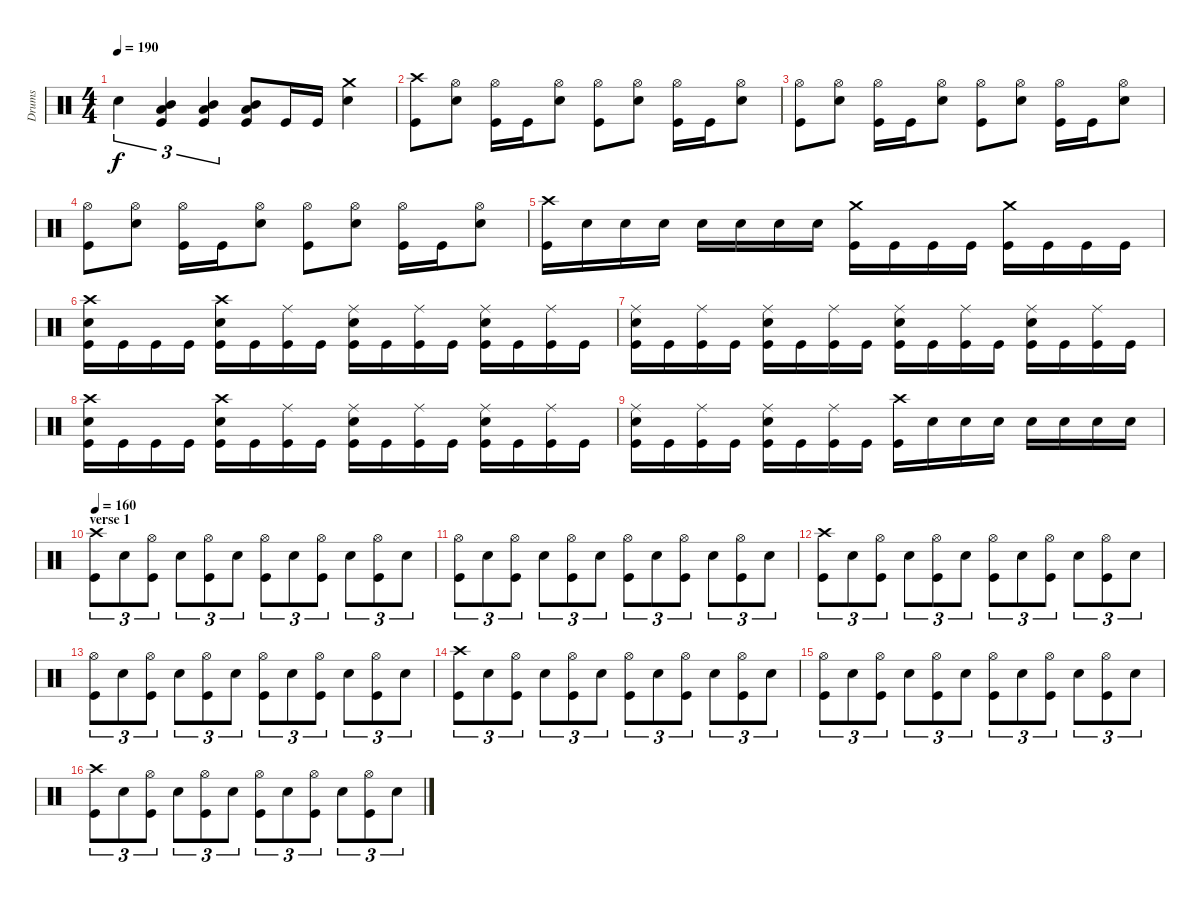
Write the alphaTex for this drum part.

\track ("Drums" "Drums") {instrument percussion}
\staff {score}
\articulation defaults
\ts (4 4)
\tempo 190
\clef neutral
\ks c "Electric Snare (hit)".4{tu (3 2) dy f}
("Mid Tom (hit)" "Low Tom (hit)" "Kick (hit)").4{tu (3 2)} ("Mid Tom (hit)" "Low Tom (hit)" "Kick (hit)").4{tu (3 2)} ("Mid Tom (hit)" "Low Tom (hit)" "Kick (hit)").8 "Kick (hit)".16 "Kick (hit)".16 ("Crash medium (hit)" "Electric Snare (hit)").4 |
("Crash high (hit)" "Kick (hit)").8 ("Hi-Hat (open)" "Electric Snare (hit)").8 ("Hi-Hat (open)" "Kick (hit)").16 "Kick (hit)".16 ("Hi-Hat (open)" "Electric Snare (hit)").8 ("Hi-Hat (open)" "Kick (hit)").8 ("Hi-Hat (open)" "Electric Snare (hit)").8 ("Hi-Hat (open)" "Kick (hit)").16 "Kick (hit)".16 ("Hi-Hat (open)" "Electric Snare (hit)").8 |
("Hi-Hat (open)" "Kick (hit)").8 ("Hi-Hat (open)" "Electric Snare (hit)").8 ("Hi-Hat (open)" "Kick (hit)").16 "Kick (hit)".16 ("Hi-Hat (open)" "Electric Snare (hit)").8 ("Hi-Hat (open)" "Kick (hit)").8 ("Hi-Hat (open)" "Electric Snare (hit)").8 ("Hi-Hat (open)" "Kick (hit)").16 "Kick (hit)".16 ("Hi-Hat (open)" "Electric Snare (hit)").8 |
("Hi-Hat (open)" "Kick (hit)").8 ("Hi-Hat (open)" "Electric Snare (hit)").8 ("Hi-Hat (open)" "Kick (hit)").16 "Kick (hit)".16 ("Hi-Hat (open)" "Electric Snare (hit)").8 ("Hi-Hat (open)" "Kick (hit)").8 ("Hi-Hat (open)" "Electric Snare (hit)").8 ("Hi-Hat (open)" "Kick (hit)").16 "Kick (hit)".16 ("Hi-Hat (open)" "Electric Snare (hit)").8 |
("Crash high (hit)" "Kick (hit)").16 "Electric Snare (hit)".16 "Electric Snare (hit)".16 "Electric Snare (hit)".16 "Electric Snare (hit)".16 "Electric Snare (hit)".16 "Electric Snare (hit)".16 "Electric Snare (hit)".16 ("Crash medium (hit)" "Kick (hit)").16 "Kick (hit)".16 "Kick (hit)".16 "Kick (hit)".16 ("Crash medium (hit)" "Kick (hit)").16 "Kick (hit)".16 "Kick (hit)".16 "Kick (hit)".16 |
("Crash high (hit)" "Electric Snare (hit)" "Kick (hit)").16 "Kick (hit)".16 "Kick (hit)".16 "Kick (hit)".16 ("Crash high (hit)" "Electric Snare (hit)" "Kick (hit)").16 "Kick (hit)".16 ("Ride (middle)" "Kick (hit)").16 "Kick (hit)".16 ("Ride (middle)" "Electric Snare (hit)" "Kick (hit)").16 "Kick (hit)".16 ("Ride (middle)" "Kick (hit)").16 "Kick (hit)".16 ("Ride (middle)" "Electric Snare (hit)" "Kick (hit)").16 "Kick (hit)".16 ("Ride (middle)" "Kick (hit)").16 "Kick (hit)".16 |
("Ride (middle)" "Electric Snare (hit)" "Kick (hit)").16 "Kick (hit)".16 ("Ride (middle)" "Kick (hit)").16 "Kick (hit)".16 ("Ride (middle)" "Electric Snare (hit)" "Kick (hit)").16 "Kick (hit)".16 ("Ride (middle)" "Kick (hit)").16 "Kick (hit)".16 ("Ride (middle)" "Electric Snare (hit)" "Kick (hit)").16 "Kick (hit)".16 ("Ride (middle)" "Kick (hit)").16 "Kick (hit)".16 ("Ride (middle)" "Electric Snare (hit)" "Kick (hit)").16 "Kick (hit)".16 ("Ride (middle)" "Kick (hit)").16 "Kick (hit)".16 |
("Crash high (hit)" "Electric Snare (hit)" "Kick (hit)").16 "Kick (hit)".16 "Kick (hit)".16 "Kick (hit)".16 ("Crash high (hit)" "Electric Snare (hit)" "Kick (hit)").16 "Kick (hit)".16 ("Ride (middle)" "Kick (hit)").16 "Kick (hit)".16 ("Ride (middle)" "Electric Snare (hit)" "Kick (hit)").16 "Kick (hit)".16 ("Ride (middle)" "Kick (hit)").16 "Kick (hit)".16 ("Ride (middle)" "Electric Snare (hit)" "Kick (hit)").16 "Kick (hit)".16 ("Ride (middle)" "Kick (hit)").16 "Kick (hit)".16 |
("Ride (middle)" "Electric Snare (hit)" "Kick (hit)").16 "Kick (hit)".16 ("Ride (middle)" "Kick (hit)").16 "Kick (hit)".16 ("Ride (middle)" "Electric Snare (hit)" "Kick (hit)").16 "Kick (hit)".16 ("Ride (middle)" "Kick (hit)").16 "Kick (hit)".16 ("Crash high (hit)" "Kick (hit)").16 "Electric Snare (hit)".16 "Electric Snare (hit)".16 "Electric Snare (hit)".16 "Electric Snare (hit)".16 "Electric Snare (hit)".16 "Electric Snare (hit)".16 "Electric Snare (hit)".16 |
\section ("" "verse 1 ")
\tempo 160
("Crash high (hit)" "Kick (hit)").8{tu (3 2)} "Electric Snare (hit)".8{tu (3 2)} ("Hi-Hat (open)" "Kick (hit)").8{tu (3 2)} "Electric Snare (hit)".8{tu (3 2)} ("Hi-Hat (open)" "Kick (hit)").8{tu (3 2)} "Electric Snare (hit)".8{tu (3 2)} ("Hi-Hat (open)" "Kick (hit)").8{tu (3 2)} "Electric Snare (hit)".8{tu (3 2)} ("Hi-Hat (open)" "Kick (hit)").8{tu (3 2)} "Electric Snare (hit)".8{tu (3 2)} ("Hi-Hat (open)" "Kick (hit)").8{tu (3 2)} "Electric Snare (hit)".8{tu (3 2)} |
("Hi-Hat (open)" "Kick (hit)").8{tu (3 2)} "Electric Snare (hit)".8{tu (3 2)} ("Hi-Hat (open)" "Kick (hit)").8{tu (3 2)} "Electric Snare (hit)".8{tu (3 2)} ("Hi-Hat (open)" "Kick (hit)").8{tu (3 2)} "Electric Snare (hit)".8{tu (3 2)} ("Hi-Hat (open)" "Kick (hit)").8{tu (3 2)} "Electric Snare (hit)".8{tu (3 2)} ("Hi-Hat (open)" "Kick (hit)").8{tu (3 2)} "Electric Snare (hit)".8{tu (3 2)} ("Hi-Hat (open)" "Kick (hit)").8{tu (3 2)} "Electric Snare (hit)".8{tu (3 2)} |
("Crash high (hit)" "Kick (hit)").8{tu (3 2)} "Electric Snare (hit)".8{tu (3 2)} ("Hi-Hat (open)" "Kick (hit)").8{tu (3 2)} "Electric Snare (hit)".8{tu (3 2)} ("Hi-Hat (open)" "Kick (hit)").8{tu (3 2)} "Electric Snare (hit)".8{tu (3 2)} ("Hi-Hat (open)" "Kick (hit)").8{tu (3 2)} "Electric Snare (hit)".8{tu (3 2)} ("Hi-Hat (open)" "Kick (hit)").8{tu (3 2)} "Electric Snare (hit)".8{tu (3 2)} ("Hi-Hat (open)" "Kick (hit)").8{tu (3 2)} "Electric Snare (hit)".8{tu (3 2)} |
("Hi-Hat (open)" "Kick (hit)").8{tu (3 2)} "Electric Snare (hit)".8{tu (3 2)} ("Hi-Hat (open)" "Kick (hit)").8{tu (3 2)} "Electric Snare (hit)".8{tu (3 2)} ("Hi-Hat (open)" "Kick (hit)").8{tu (3 2)} "Electric Snare (hit)".8{tu (3 2)} ("Hi-Hat (open)" "Kick (hit)").8{tu (3 2)} "Electric Snare (hit)".8{tu (3 2)} ("Hi-Hat (open)" "Kick (hit)").8{tu (3 2)} "Electric Snare (hit)".8{tu (3 2)} ("Hi-Hat (open)" "Kick (hit)").8{tu (3 2)} "Electric Snare (hit)".8{tu (3 2)} |
("Crash high (hit)" "Kick (hit)").8{tu (3 2)} "Electric Snare (hit)".8{tu (3 2)} ("Hi-Hat (open)" "Kick (hit)").8{tu (3 2)} "Electric Snare (hit)".8{tu (3 2)} ("Hi-Hat (open)" "Kick (hit)").8{tu (3 2)} "Electric Snare (hit)".8{tu (3 2)} ("Hi-Hat (open)" "Kick (hit)").8{tu (3 2)} "Electric Snare (hit)".8{tu (3 2)} ("Hi-Hat (open)" "Kick (hit)").8{tu (3 2)} "Electric Snare (hit)".8{tu (3 2)} ("Hi-Hat (open)" "Kick (hit)").8{tu (3 2)} "Electric Snare (hit)".8{tu (3 2)} |
("Hi-Hat (open)" "Kick (hit)").8{tu (3 2)} "Electric Snare (hit)".8{tu (3 2)} ("Hi-Hat (open)" "Kick (hit)").8{tu (3 2)} "Electric Snare (hit)".8{tu (3 2)} ("Hi-Hat (open)" "Kick (hit)").8{tu (3 2)} "Electric Snare (hit)".8{tu (3 2)} ("Hi-Hat (open)" "Kick (hit)").8{tu (3 2)} "Electric Snare (hit)".8{tu (3 2)} ("Hi-Hat (open)" "Kick (hit)").8{tu (3 2)} "Electric Snare (hit)".8{tu (3 2)} ("Hi-Hat (open)" "Kick (hit)").8{tu (3 2)} "Electric Snare (hit)".8{tu (3 2)} |
("Crash high (hit)" "Kick (hit)").8{tu (3 2)} "Electric Snare (hit)".8{tu (3 2)} ("Hi-Hat (open)" "Kick (hit)").8{tu (3 2)} "Electric Snare (hit)".8{tu (3 2)} ("Hi-Hat (open)" "Kick (hit)").8{tu (3 2)} "Electric Snare (hit)".8{tu (3 2)} ("Hi-Hat (open)" "Kick (hit)").8{tu (3 2)} "Electric Snare (hit)".8{tu (3 2)} ("Hi-Hat (open)" "Kick (hit)").8{tu (3 2)} "Electric Snare (hit)".8{tu (3 2)} ("Hi-Hat (open)" "Kick (hit)").8{tu (3 2)} "Electric Snare (hit)".8{tu (3 2)}
